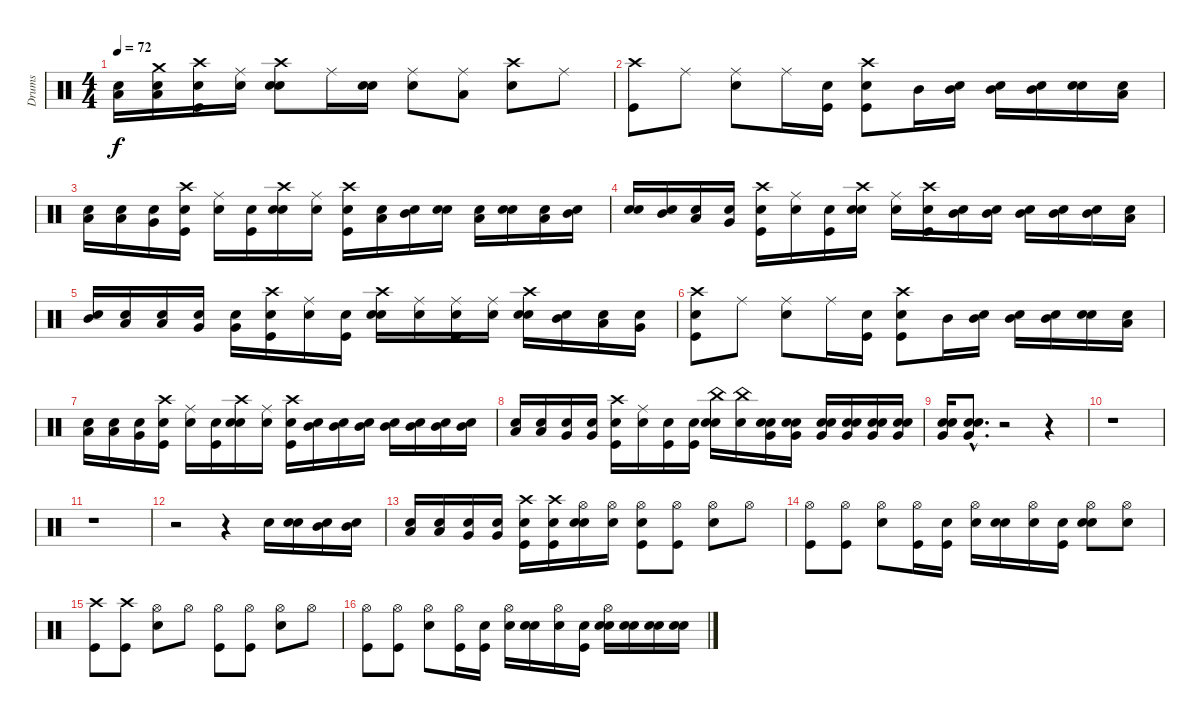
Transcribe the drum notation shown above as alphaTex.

\track ("Drums" "Drums") {instrument percussion}
\staff {score}
\articulation defaults
\ts (4 4)
\tempo 72
\clef neutral
\ks c
("Snare (hit)" "Low Tom (hit)").16{dy f} ("Snare (hit)" "Crash medium (hit)" "Low Tom (hit)").16 ("Snare (hit)" "Kick (hit)" "Crash high (hit)").16 ("Snare (hit)" "Ride (middle)").16 ("Snare (hit)" "Snare (hit) 2" "Crash high (hit)").8 "Ride (middle)".16 ("Snare (hit)" "Snare (hit) 2").16 ("Snare (hit)" "Ride (middle)").8 ("Low Floor Tom (hit)" "Ride (middle)").8 ("Snare (hit) 2" "Crash high (hit)").8 "Ride (middle)".8 |
("Kick (hit)" "Crash high (hit)").8 "Ride (middle)".8 ("Snare (hit) 2" "Ride (middle)").8 "Ride (middle)".16 ("Snare (hit)" "Kick (hit)").16 ("Snare (hit)" "Kick (hit)" "Crash high (hit)").8 "Mid Tom (hit)".16 ("Snare (hit)" "Mid Tom (hit)").16 ("Snare (hit)" "Mid Tom (hit)").16 ("Snare (hit)" "Mid Tom (hit)").16 ("Snare (hit)" "Snare (hit) 2").16 ("Snare (hit)" "Low Tom (hit)").16 |
("Snare (hit)" "Low Tom (hit)").16 ("Snare (hit)" "Low Tom (hit)").16 ("Snare (hit)" "Very Low Tom (hit)").16 ("Snare (hit)" "Kick (hit)" "Crash high (hit)").16 ("Snare (hit)" "Ride (middle)").16 ("Snare (hit)" "Kick (hit)").16 ("Snare (hit)" "Snare (hit) 2" "Crash high (hit)").16 ("Snare (hit)" "Ride (middle)").16 ("Snare (hit)" "Kick (hit)" "Crash high (hit)").16 ("Snare (hit)" "Low Tom (hit)").16 ("Snare (hit)" "Mid Tom (hit)").16 ("Snare (hit)" "Snare (hit) 2").16 ("Snare (hit)" "Low Tom (hit)").16 ("Snare (hit)" "Snare (hit) 2").16 ("Snare (hit)" "Low Tom (hit)").16 ("Snare (hit)" "Mid Tom (hit)").16 |
("Snare (hit)" "Snare (hit) 2").16 ("Snare (hit)" "Mid Tom (hit)").16 ("Snare (hit)" "Low Tom (hit)").16 ("Snare (hit)" "Very Low Tom (hit)").16 ("Snare (hit)" "Kick (hit)" "Crash high (hit)").16 ("Snare (hit)" "Ride (middle)").16 ("Snare (hit)" "Kick (hit)").16 ("Snare (hit)" "Snare (hit) 2" "Crash high (hit)").16 ("Snare (hit)" "Ride (middle)").16 ("Snare (hit)" "Crash high (hit)" "Kick (hit)").16 ("Snare (hit)" "Mid Tom (hit)").16 ("Snare (hit)" "Mid Tom (hit)").16 ("Snare (hit)" "Mid Tom (hit)").16 ("Snare (hit)" "Mid Tom (hit)").16 ("Snare (hit)" "Mid Tom (hit)").16 ("Snare (hit)" "Low Tom (hit)").16 |
("Snare (hit)" "Mid Tom (hit)").16 ("Snare (hit)" "Low Tom (hit)").16 ("Snare (hit)" "Low Tom (hit)").16 ("Snare (hit)" "Very Low Tom (hit)").16 ("Snare (hit)" "Very Low Tom (hit)").16 ("Snare (hit)" "Kick (hit)" "Crash high (hit)").16 ("Snare (hit)" "Ride (middle)").16 ("Snare (hit)" "Kick (hit)").16 ("Snare (hit)" "Snare (hit) 2" "Crash high (hit)").16 ("Snare (hit)" "Ride (middle)").16 ("Snare (hit)" "Kick (hit)" "Ride (middle)").16 ("Snare (hit)" "Ride (middle)").16 ("Snare (hit)" "Snare (hit) 2" "Crash high (hit)").16 ("Snare (hit)" "Mid Tom (hit)").16 ("Snare (hit)" "Low Tom (hit)").16 ("Snare (hit)" "Very Low Tom (hit)").16 |
("Snare (hit)" "Kick (hit)" "Crash high (hit)").8 "Ride (middle)".8 ("Snare (hit) 2" "Ride (middle)").8 "Ride (middle)".16 ("Snare (hit)" "Kick (hit)").16 ("Snare (hit)" "Kick (hit)" "Crash high (hit)").8 "Mid Tom (hit)".16 ("Snare (hit)" "Mid Tom (hit)").16 ("Snare (hit)" "Mid Tom (hit)").16 ("Snare (hit)" "Mid Tom (hit)").16 ("Snare (hit)" "Snare (hit) 2").16 ("Snare (hit)" "Low Tom (hit)").16 |
("Snare (hit)" "Low Tom (hit)").16 ("Snare (hit)" "Low Tom (hit)").16 ("Snare (hit)" "Very Low Tom (hit)").16 ("Snare (hit)" "Kick (hit)" "Crash high (hit)").16 ("Snare (hit)" "Ride (middle)").16 ("Snare (hit)" "Kick (hit)").16 ("Snare (hit)" "Snare (hit) 2" "Crash high (hit)").16 ("Snare (hit)" "Ride (middle)").16 ("Snare (hit)" "Crash high (hit)" "Kick (hit)").16 ("Snare (hit)" "Mid Tom (hit)").16 ("Snare (hit)" "Mid Tom (hit)").16 ("Snare (hit)" "Mid Tom (hit)").16 ("Snare (hit)" "Mid Tom (hit)").16 ("Snare (hit)" "Mid Tom (hit)").16 ("Snare (hit)" "Mid Tom (hit)").16 ("Snare (hit)" "Mid Tom (hit)").16 |
("Snare (hit)" "Low Tom (hit)").16 ("Snare (hit)" "Low Tom (hit)").16 ("Snare (hit)" "Very Low Tom (hit)").16 ("Snare (hit)" "Very Low Tom (hit)").16 ("Snare (hit)" "Kick (hit)" "Crash high (hit)").16 ("Snare (hit)" "Ride (middle)").16 ("Snare (hit)" "Kick (hit)").16 ("Snare (hit)" "Kick (hit)").16 ("Snare (hit)" "Snare (hit) 2" "China (hit)").16 ("Snare (hit)" "China (hit)").16 ("Snare (hit)" "Very Low Tom (hit)" "Snare (hit) 2").16 ("Snare (hit)" "Very Low Tom (hit)" "Snare (hit) 2").16 ("Snare (hit)" "Very Low Tom (hit)" "Snare (hit) 2").16 ("Snare (hit)" "Very Low Tom (hit)" "Snare (hit) 2").16 ("Snare (hit)" "Very Low Tom (hit)" "Snare (hit) 2").16 ("Snare (hit)" "Very Low Tom (hit)" "Snare (hit) 2").16 |
("Snare (hit)" "Very Low Tom (hit)" "Snare (hit) 2").16 ("Snare (hit)"{hac} "Very Low Tom (hit)"{hac} "Snare (hit) 2"{hac}).8{d} r.2 r.4 |
r.1 |
r.1 |
r.2 r.4 "Snare (hit) 2".16 ("Snare (hit)" "Snare (hit) 2").16 ("Snare (hit)" "Mid Tom (hit)").16 ("Snare (hit)" "Mid Tom (hit)").16 |
("Snare (hit)" "Low Tom (hit)").16 ("Snare (hit)" "Low Tom (hit)").16 ("Snare (hit)" "Very Low Tom (hit)").16 ("Snare (hit)" "Very Low Tom (hit)").16 ("Snare (hit)" "Kick (hit)" "Crash high (hit)").16 ("Snare (hit)" "Kick (hit)" "Crash high (hit)").16 ("Snare (hit)" "Snare (hit) 2" "Hi-Hat (open)").16 ("Snare (hit)" "Hi-Hat (open)").16 ("Snare (hit)" "Kick (hit)" "Hi-Hat (open)").8 ("Kick (hit)" "Hi-Hat (open)").8 ("Snare (hit) 2" "Hi-Hat (open)").8 "Hi-Hat (open)".8 |
("Kick (hit)" "Hi-Hat (open)").8 ("Kick (hit)" "Hi-Hat (open)").8 ("Snare (hit) 2" "Hi-Hat (open)").8 ("Kick (hit)" "Hi-Hat (open)").16 ("Snare (hit)" "Kick (hit)").16 ("Snare (hit)" "Hi-Hat (open)").16 ("Snare (hit)" "Snare (hit) 2").16 ("Snare (hit)" "Hi-Hat (open)").16 ("Snare (hit)" "Kick (hit)").16 ("Snare (hit)" "Snare (hit) 2" "Hi-Hat (open)").8 ("Snare (hit) 2" "Hi-Hat (open)").8 |
("Kick (hit)" "Crash high (hit)").8 ("Kick (hit)" "Crash high (hit)").8 ("Snare (hit) 2" "Hi-Hat (open)").8 "Hi-Hat (open)".8 ("Kick (hit)" "Hi-Hat (open)").8 ("Kick (hit)" "Hi-Hat (open)").8 ("Snare (hit) 2" "Hi-Hat (open)").8 "Hi-Hat (open)".8 |
("Kick (hit)" "Hi-Hat (open)").8 ("Kick (hit)" "Hi-Hat (open)").8 ("Snare (hit) 2" "Hi-Hat (open)").8 ("Kick (hit)" "Hi-Hat (open)").16 ("Snare (hit)" "Kick (hit)").16 ("Snare (hit)" "Hi-Hat (open)").16 ("Snare (hit)" "Snare (hit) 2").16 ("Snare (hit)" "Hi-Hat (open)").16 ("Snare (hit)" "Kick (hit)").16 ("Snare (hit)" "Hi-Hat (open)" "Snare (hit) 2").16 ("Snare (hit)" "Snare (hit) 2").16 ("Snare (hit)" "Snare (hit) 2").16 ("Snare (hit)" "Snare (hit) 2").16
